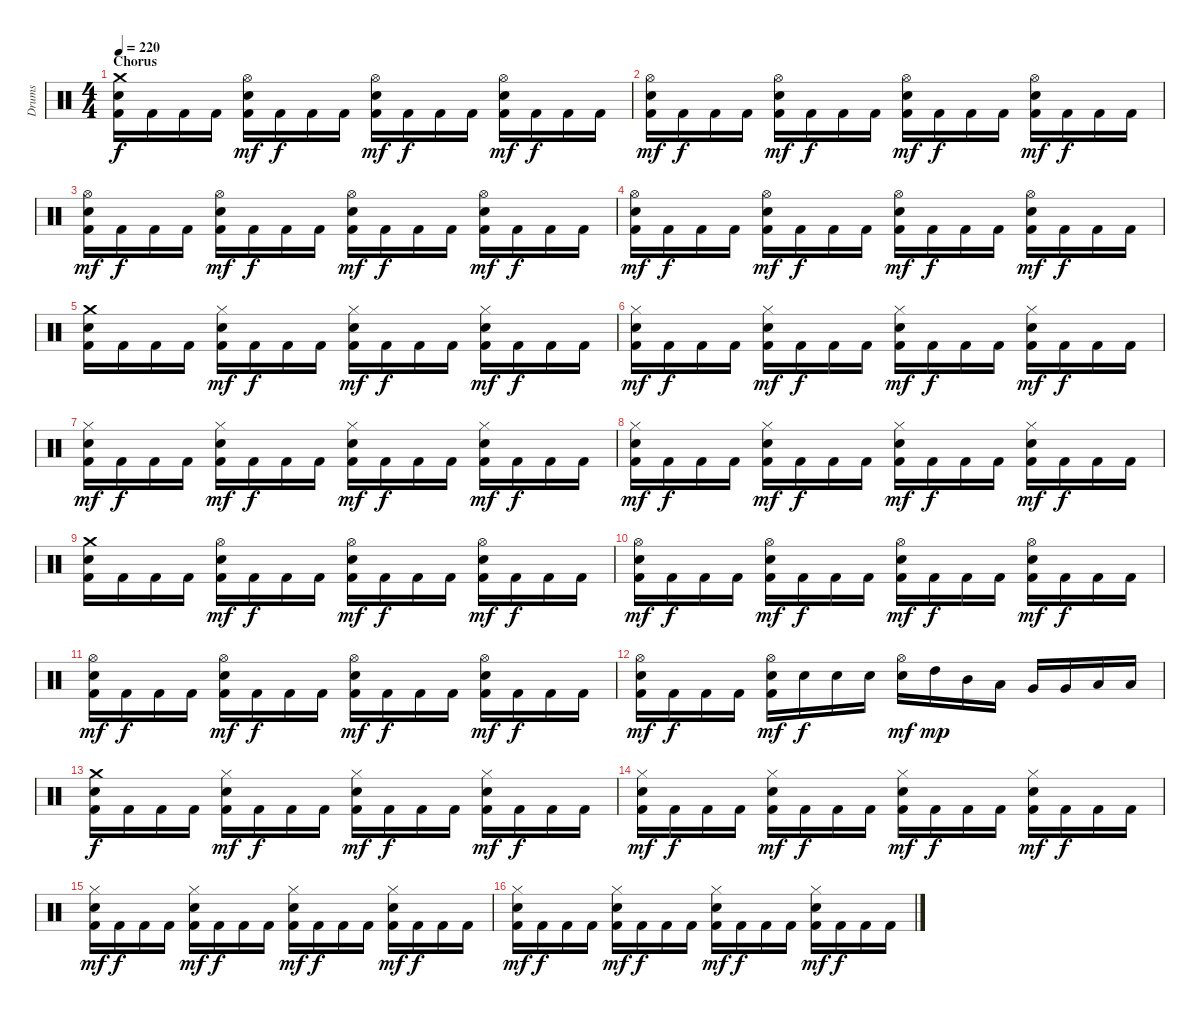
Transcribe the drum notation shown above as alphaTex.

\track ("Drums" "Drums") {instrument percussion}
\staff {score}
\articulation defaults
\ts (4 4)
\section ("" "Chorus")
\tempo 220
\clef neutral
\ks c
("Crash medium (hit)" "Electric Snare (hit)" "Kick (hit) 2").16{dy f} "Kick (hit) 2".16 "Kick (hit) 2".16 "Kick (hit) 2".16 ("Hi-Hat (open)" "Electric Snare (hit)" "Kick (hit) 2").16{dy mf} "Kick (hit) 2".16{dy f} "Kick (hit) 2".16 "Kick (hit) 2".16 ("Hi-Hat (open)" "Electric Snare (hit)" "Kick (hit) 2").16{dy mf} "Kick (hit) 2".16{dy f} "Kick (hit) 2".16 "Kick (hit) 2".16 ("Hi-Hat (open)" "Electric Snare (hit)" "Kick (hit) 2").16{dy mf} "Kick (hit) 2".16{dy f} "Kick (hit) 2".16 "Kick (hit) 2".16 |
("Hi-Hat (open)" "Electric Snare (hit)" "Kick (hit) 2").16{dy mf} "Kick (hit) 2".16{dy f} "Kick (hit) 2".16 "Kick (hit) 2".16 ("Hi-Hat (open)" "Electric Snare (hit)" "Kick (hit) 2").16{dy mf} "Kick (hit) 2".16{dy f} "Kick (hit) 2".16 "Kick (hit) 2".16 ("Hi-Hat (open)" "Electric Snare (hit)" "Kick (hit) 2").16{dy mf} "Kick (hit) 2".16{dy f} "Kick (hit) 2".16 "Kick (hit) 2".16 ("Hi-Hat (open)" "Electric Snare (hit)" "Kick (hit) 2").16{dy mf} "Kick (hit) 2".16{dy f} "Kick (hit) 2".16 "Kick (hit) 2".16 |
("Hi-Hat (open)" "Electric Snare (hit)" "Kick (hit) 2").16{dy mf} "Kick (hit) 2".16{dy f} "Kick (hit) 2".16 "Kick (hit) 2".16 ("Hi-Hat (open)" "Electric Snare (hit)" "Kick (hit) 2").16{dy mf} "Kick (hit) 2".16{dy f} "Kick (hit) 2".16 "Kick (hit) 2".16 ("Hi-Hat (open)" "Electric Snare (hit)" "Kick (hit) 2").16{dy mf} "Kick (hit) 2".16{dy f} "Kick (hit) 2".16 "Kick (hit) 2".16 ("Hi-Hat (open)" "Electric Snare (hit)" "Kick (hit) 2").16{dy mf} "Kick (hit) 2".16{dy f} "Kick (hit) 2".16 "Kick (hit) 2".16 |
("Hi-Hat (open)" "Electric Snare (hit)" "Kick (hit) 2").16{dy mf} "Kick (hit) 2".16{dy f} "Kick (hit) 2".16 "Kick (hit) 2".16 ("Hi-Hat (open)" "Electric Snare (hit)" "Kick (hit) 2").16{dy mf} "Kick (hit) 2".16{dy f} "Kick (hit) 2".16 "Kick (hit) 2".16 ("Hi-Hat (open)" "Electric Snare (hit)" "Kick (hit) 2").16{dy mf} "Kick (hit) 2".16{dy f} "Kick (hit) 2".16 "Kick (hit) 2".16 ("Hi-Hat (open)" "Electric Snare (hit)" "Kick (hit) 2").16{dy mf} "Kick (hit) 2".16{dy f} "Kick (hit) 2".16 "Kick (hit) 2".16 |
("Crash medium (hit)" "Electric Snare (hit)" "Kick (hit) 2").16 "Kick (hit) 2".16 "Kick (hit) 2".16 "Kick (hit) 2".16 ("Hi-Hat (closed)" "Electric Snare (hit)" "Kick (hit) 2").16{dy mf} "Kick (hit) 2".16{dy f} "Kick (hit) 2".16 "Kick (hit) 2".16 ("Hi-Hat (closed)" "Electric Snare (hit)" "Kick (hit) 2").16{dy mf} "Kick (hit) 2".16{dy f} "Kick (hit) 2".16 "Kick (hit) 2".16 ("Hi-Hat (closed)" "Electric Snare (hit)" "Kick (hit) 2").16{dy mf} "Kick (hit) 2".16{dy f} "Kick (hit) 2".16 "Kick (hit) 2".16 |
("Hi-Hat (closed)" "Electric Snare (hit)" "Kick (hit) 2").16{dy mf} "Kick (hit) 2".16{dy f} "Kick (hit) 2".16 "Kick (hit) 2".16 ("Hi-Hat (closed)" "Electric Snare (hit)" "Kick (hit) 2").16{dy mf} "Kick (hit) 2".16{dy f} "Kick (hit) 2".16 "Kick (hit) 2".16 ("Hi-Hat (closed)" "Electric Snare (hit)" "Kick (hit) 2").16{dy mf} "Kick (hit) 2".16{dy f} "Kick (hit) 2".16 "Kick (hit) 2".16 ("Hi-Hat (closed)" "Electric Snare (hit)" "Kick (hit) 2").16{dy mf} "Kick (hit) 2".16{dy f} "Kick (hit) 2".16 "Kick (hit) 2".16 |
("Hi-Hat (closed)" "Electric Snare (hit)" "Kick (hit) 2").16{dy mf} "Kick (hit) 2".16{dy f} "Kick (hit) 2".16 "Kick (hit) 2".16 ("Hi-Hat (closed)" "Electric Snare (hit)" "Kick (hit) 2").16{dy mf} "Kick (hit) 2".16{dy f} "Kick (hit) 2".16 "Kick (hit) 2".16 ("Hi-Hat (closed)" "Electric Snare (hit)" "Kick (hit) 2").16{dy mf} "Kick (hit) 2".16{dy f} "Kick (hit) 2".16 "Kick (hit) 2".16 ("Hi-Hat (closed)" "Electric Snare (hit)" "Kick (hit) 2").16{dy mf} "Kick (hit) 2".16{dy f} "Kick (hit) 2".16 "Kick (hit) 2".16 |
("Hi-Hat (closed)" "Electric Snare (hit)" "Kick (hit) 2").16{dy mf} "Kick (hit) 2".16{dy f} "Kick (hit) 2".16 "Kick (hit) 2".16 ("Hi-Hat (closed)" "Electric Snare (hit)" "Kick (hit) 2").16{dy mf} "Kick (hit) 2".16{dy f} "Kick (hit) 2".16 "Kick (hit) 2".16 ("Hi-Hat (closed)" "Electric Snare (hit)" "Kick (hit) 2").16{dy mf} "Kick (hit) 2".16{dy f} "Kick (hit) 2".16 "Kick (hit) 2".16 ("Hi-Hat (closed)" "Electric Snare (hit)" "Kick (hit) 2").16{dy mf} "Kick (hit) 2".16{dy f} "Kick (hit) 2".16 "Kick (hit) 2".16 |
("Crash medium (hit)" "Electric Snare (hit)" "Kick (hit) 2").16 "Kick (hit) 2".16 "Kick (hit) 2".16 "Kick (hit) 2".16 ("Hi-Hat (open)" "Electric Snare (hit)" "Kick (hit) 2").16{dy mf} "Kick (hit) 2".16{dy f} "Kick (hit) 2".16 "Kick (hit) 2".16 ("Hi-Hat (open)" "Electric Snare (hit)" "Kick (hit) 2").16{dy mf} "Kick (hit) 2".16{dy f} "Kick (hit) 2".16 "Kick (hit) 2".16 ("Hi-Hat (open)" "Electric Snare (hit)" "Kick (hit) 2").16{dy mf} "Kick (hit) 2".16{dy f} "Kick (hit) 2".16 "Kick (hit) 2".16 |
("Hi-Hat (open)" "Electric Snare (hit)" "Kick (hit) 2").16{dy mf} "Kick (hit) 2".16{dy f} "Kick (hit) 2".16 "Kick (hit) 2".16 ("Hi-Hat (open)" "Electric Snare (hit)" "Kick (hit) 2").16{dy mf} "Kick (hit) 2".16{dy f} "Kick (hit) 2".16 "Kick (hit) 2".16 ("Hi-Hat (open)" "Electric Snare (hit)" "Kick (hit) 2").16{dy mf} "Kick (hit) 2".16{dy f} "Kick (hit) 2".16 "Kick (hit) 2".16 ("Hi-Hat (open)" "Electric Snare (hit)" "Kick (hit) 2").16{dy mf} "Kick (hit) 2".16{dy f} "Kick (hit) 2".16 "Kick (hit) 2".16 |
("Hi-Hat (open)" "Electric Snare (hit)" "Kick (hit) 2").16{dy mf} "Kick (hit) 2".16{dy f} "Kick (hit) 2".16 "Kick (hit) 2".16 ("Hi-Hat (open)" "Electric Snare (hit)" "Kick (hit) 2").16{dy mf} "Kick (hit) 2".16{dy f} "Kick (hit) 2".16 "Kick (hit) 2".16 ("Hi-Hat (open)" "Electric Snare (hit)" "Kick (hit) 2").16{dy mf} "Kick (hit) 2".16{dy f} "Kick (hit) 2".16 "Kick (hit) 2".16 ("Hi-Hat (open)" "Electric Snare (hit)" "Kick (hit) 2").16{dy mf} "Kick (hit) 2".16{dy f} "Kick (hit) 2".16 "Kick (hit) 2".16 |
("Hi-Hat (open)" "Electric Snare (hit)" "Kick (hit) 2").16{dy mf} "Kick (hit) 2".16{dy f} "Kick (hit) 2".16 "Kick (hit) 2".16 ("Hi-Hat (open)" "Electric Snare (hit)" "Kick (hit) 2").16{dy mf} "Electric Snare (hit)".16{dy f} "Electric Snare (hit)".16 "Electric Snare (hit)".16 ("Hi-Hat (open)" "Electric Snare (hit)").16{dy mf} "High Tom (hit)".16{dy mp} "Mid Tom (hit)".16 "Low Tom (hit)".16 "Very Low Tom (hit)".16 "Very Low Tom (hit)".16 "Low Floor Tom (hit)".16 "Low Floor Tom (hit)".16 |
("Crash medium (hit)" "Electric Snare (hit)" "Kick (hit) 2").16{dy f} "Kick (hit) 2".16 "Kick (hit) 2".16 "Kick (hit) 2".16 ("Hi-Hat (closed)" "Electric Snare (hit)" "Kick (hit) 2").16{dy mf} "Kick (hit) 2".16{dy f} "Kick (hit) 2".16 "Kick (hit) 2".16 ("Hi-Hat (closed)" "Electric Snare (hit)" "Kick (hit) 2").16{dy mf} "Kick (hit) 2".16{dy f} "Kick (hit) 2".16 "Kick (hit) 2".16 ("Hi-Hat (closed)" "Electric Snare (hit)" "Kick (hit) 2").16{dy mf} "Kick (hit) 2".16{dy f} "Kick (hit) 2".16 "Kick (hit) 2".16 |
("Hi-Hat (closed)" "Electric Snare (hit)" "Kick (hit) 2").16{dy mf} "Kick (hit) 2".16{dy f} "Kick (hit) 2".16 "Kick (hit) 2".16 ("Hi-Hat (closed)" "Electric Snare (hit)" "Kick (hit) 2").16{dy mf} "Kick (hit) 2".16{dy f} "Kick (hit) 2".16 "Kick (hit) 2".16 ("Hi-Hat (closed)" "Electric Snare (hit)" "Kick (hit) 2").16{dy mf} "Kick (hit) 2".16{dy f} "Kick (hit) 2".16 "Kick (hit) 2".16 ("Hi-Hat (closed)" "Electric Snare (hit)" "Kick (hit) 2").16{dy mf} "Kick (hit) 2".16{dy f} "Kick (hit) 2".16 "Kick (hit) 2".16 |
("Hi-Hat (closed)" "Electric Snare (hit)" "Kick (hit) 2").16{dy mf} "Kick (hit) 2".16{dy f} "Kick (hit) 2".16 "Kick (hit) 2".16 ("Hi-Hat (closed)" "Electric Snare (hit)" "Kick (hit) 2").16{dy mf} "Kick (hit) 2".16{dy f} "Kick (hit) 2".16 "Kick (hit) 2".16 ("Hi-Hat (closed)" "Electric Snare (hit)" "Kick (hit) 2").16{dy mf} "Kick (hit) 2".16{dy f} "Kick (hit) 2".16 "Kick (hit) 2".16 ("Hi-Hat (closed)" "Electric Snare (hit)" "Kick (hit) 2").16{dy mf} "Kick (hit) 2".16{dy f} "Kick (hit) 2".16 "Kick (hit) 2".16 |
("Hi-Hat (closed)" "Electric Snare (hit)" "Kick (hit) 2").16{dy mf} "Kick (hit) 2".16{dy f} "Kick (hit) 2".16 "Kick (hit) 2".16 ("Hi-Hat (closed)" "Electric Snare (hit)" "Kick (hit) 2").16{dy mf} "Kick (hit) 2".16{dy f} "Kick (hit) 2".16 "Kick (hit) 2".16 ("Hi-Hat (closed)" "Electric Snare (hit)" "Kick (hit) 2").16{dy mf} "Kick (hit) 2".16{dy f} "Kick (hit) 2".16 "Kick (hit) 2".16 ("Hi-Hat (closed)" "Electric Snare (hit)" "Kick (hit) 2").16{dy mf} "Kick (hit) 2".16{dy f} "Kick (hit) 2".16 "Kick (hit) 2".16
